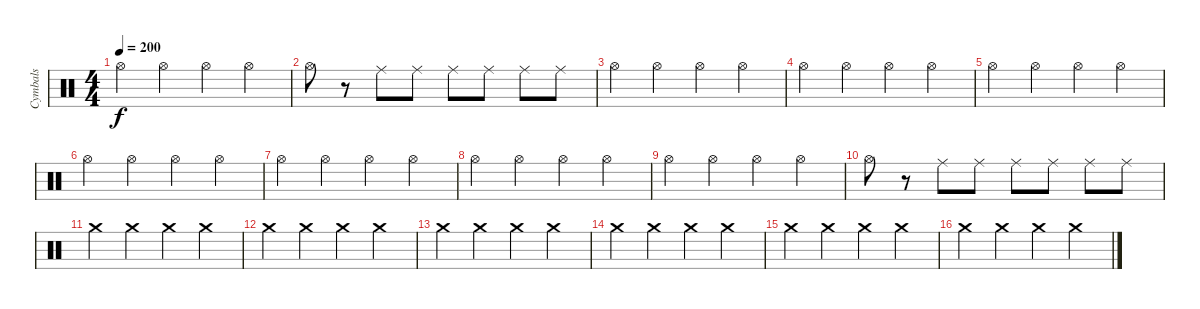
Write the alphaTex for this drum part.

\track ("Cymbals" "Cymbals") {instrument percussion}
\staff {score}
\articulation defaults
\ts (4 4)
\tempo 200
\clef neutral
\ks c "Hi-Hat (open)".4{dy f} "Hi-Hat (open)".4 "Hi-Hat (open)".4 "Hi-Hat (open)".4
|
"Hi-Hat (open)".8 r.8 "Ride (middle)".8 "Ride (middle)".8 "Ride (middle)".8 "Ride (middle)".8 "Ride (middle)".8 "Ride (middle)".8 |
"Hi-Hat (open)".4 "Hi-Hat (open)".4 "Hi-Hat (open)".4 "Hi-Hat (open)".4 |
"Hi-Hat (open)".4 "Hi-Hat (open)".4 "Hi-Hat (open)".4 "Hi-Hat (open)".4 |
"Hi-Hat (open)".4 "Hi-Hat (open)".4 "Hi-Hat (open)".4 "Hi-Hat (open)".4 |
"Hi-Hat (open)".4 "Hi-Hat (open)".4 "Hi-Hat (open)".4 "Hi-Hat (open)".4 |
"Hi-Hat (open)".4 "Hi-Hat (open)".4 "Hi-Hat (open)".4 "Hi-Hat (open)".4 |
"Hi-Hat (open)".4 "Hi-Hat (open)".4 "Hi-Hat (open)".4 "Hi-Hat (open)".4 |
"Hi-Hat (open)".4 "Hi-Hat (open)".4 "Hi-Hat (open)".4 "Hi-Hat (open)".4 |
"Hi-Hat (open)".8 r.8 "Ride (middle)".8 "Ride (middle)".8 "Ride (middle)".8 "Ride (middle)".8 "Ride (middle)".8 "Ride (middle)".8 |
"Crash medium (hit)".4 "Crash medium (hit)".4 "Crash medium (hit)".4 "Crash medium (hit)".4 |
"Crash medium (hit)".4 "Crash medium (hit)".4 "Crash medium (hit)".4 "Crash medium (hit)".4 |
"Crash medium (hit)".4 "Crash medium (hit)".4 "Crash medium (hit)".4 "Crash medium (hit)".4 |
"Crash medium (hit)".4 "Crash medium (hit)".4 "Crash medium (hit)".4 "Crash medium (hit)".4 |
"Crash medium (hit)".4 "Crash medium (hit)".4 "Crash medium (hit)".4 "Crash medium (hit)".4 |
"Crash medium (hit)".4 "Crash medium (hit)".4 "Crash medium (hit)".4 "Crash medium (hit)".4
